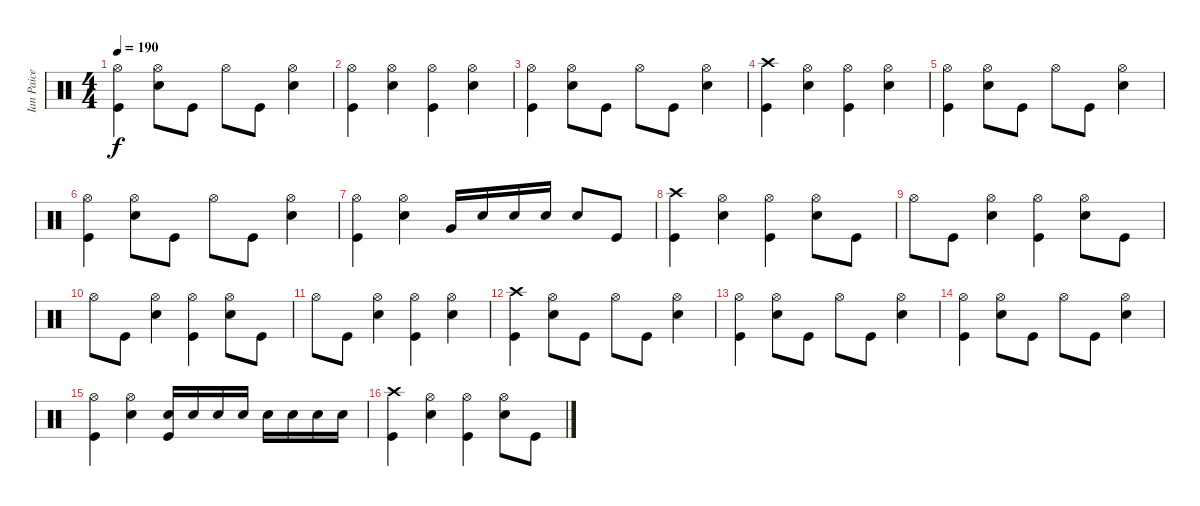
\track ("Ian Paice" "Ian Paice") {instrument percussion}
\staff {score}
\articulation defaults
\ts (4 4)
\tempo 190
\clef neutral
\ks c
("Kick (hit)" "Hi-Hat (open)").4{dy f} ("Hi-Hat (open)" "Snare (hit) 2").8 "Kick (hit)".8 "Hi-Hat (open)".8 "Kick (hit)".8 ("Hi-Hat (open)" "Snare (hit) 2").4 |
("Hi-Hat (open)" "Kick (hit)").4 ("Snare (hit) 2" "Hi-Hat (open)").4 ("Hi-Hat (open)" "Kick (hit)").4 ("Hi-Hat (open)" "Snare (hit) 2").4 |
("Kick (hit)" "Hi-Hat (open)").4 ("Hi-Hat (open)" "Snare (hit) 2").8 "Kick (hit)".8 "Hi-Hat (open)".8 "Kick (hit)".8 ("Hi-Hat (open)" "Snare (hit) 2").4 |
("Crash high (hit)" "Kick (hit)").4 ("Snare (hit) 2" "Hi-Hat (open)").4 ("Hi-Hat (open)" "Kick (hit)").4 ("Hi-Hat (open)" "Snare (hit) 2").4 |
("Kick (hit)" "Hi-Hat (open)").4 ("Hi-Hat (open)" "Snare (hit) 2").8 "Kick (hit)".8 "Hi-Hat (open)".8 "Kick (hit)".8 ("Hi-Hat (open)" "Snare (hit) 2").4 |
("Hi-Hat (open)" "Kick (hit)").4 ("Snare (hit) 2" "Hi-Hat (open)").8 "Kick (hit)".8 "Hi-Hat (open)".8 "Kick (hit)".8 ("Hi-Hat (open)" "Snare (hit) 2").4 |
("Kick (hit)" "Hi-Hat (open)").4 ("Hi-Hat (open)" "Snare (hit) 2").4 "Very Low Tom (hit)".16 "Snare (hit) 2".16 "Snare (hit) 2".16 "Snare (hit) 2".16 "Snare (hit) 2".8 "Kick (hit)".8 |
("Crash high (hit)" "Kick (hit)").4 ("Snare (hit) 2" "Hi-Hat (open)").4 ("Hi-Hat (open)" "Kick (hit)").4 ("Hi-Hat (open)" "Snare (hit) 2").8 "Kick (hit)".8 |
"Hi-Hat (open)".8 "Kick (hit)".8 ("Hi-Hat (open)" "Snare (hit) 2").4 ("Hi-Hat (open)" "Kick (hit)").4 ("Hi-Hat (open)" "Snare (hit) 2").8 "Kick (hit)".8 |
"Hi-Hat (open)".8 "Kick (hit)".8 ("Snare (hit) 2" "Hi-Hat (open)").4 ("Hi-Hat (open)" "Kick (hit)").4 ("Hi-Hat (open)" "Snare (hit) 2").8 "Kick (hit)".8 |
"Hi-Hat (open)".8 "Kick (hit)".8 ("Hi-Hat (open)" "Snare (hit) 2").4 ("Hi-Hat (open)" "Kick (hit)").4 ("Hi-Hat (open)" "Snare (hit) 2").4 |
("Crash high (hit)" "Kick (hit)").4 ("Snare (hit) 2" "Hi-Hat (open)").8 "Kick (hit)".8 "Hi-Hat (open)".8 "Kick (hit)".8 ("Hi-Hat (open)" "Snare (hit) 2").4 |
("Kick (hit)" "Hi-Hat (open)").4 ("Hi-Hat (open)" "Snare (hit) 2").8 "Kick (hit)".8 "Hi-Hat (open)".8 "Kick (hit)".8 ("Hi-Hat (open)" "Snare (hit) 2").4 |
("Hi-Hat (open)" "Kick (hit)").4 ("Snare (hit) 2" "Hi-Hat (open)").8 "Kick (hit)".8 "Hi-Hat (open)".8 "Kick (hit)".8 ("Hi-Hat (open)" "Snare (hit) 2").4 |
("Kick (hit)" "Hi-Hat (open)").4 ("Hi-Hat (open)" "Snare (hit) 2").4 ("Snare (hit) 2" "Kick (hit)").16 "Snare (hit) 2".16 "Snare (hit) 2".16 "Snare (hit) 2".16 "Snare (hit) 2".16 "Snare (hit) 2".16 "Snare (hit) 2".16 "Snare (hit) 2".16 |
("Crash high (hit)" "Kick (hit)").4 ("Snare (hit) 2" "Hi-Hat (open)").4 ("Hi-Hat (open)" "Kick (hit)").4 ("Hi-Hat (open)" "Snare (hit) 2").8 "Kick (hit)".8
